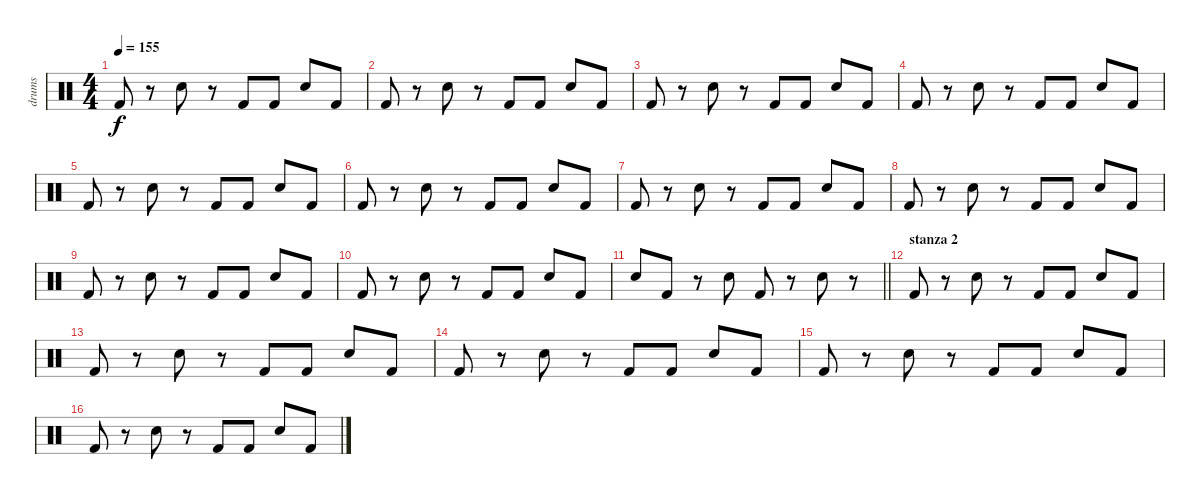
\track ("drums" "drums") {instrument percussion}
\staff {score}
\articulation defaults
\ts (4 4)
\tempo 155
\clef neutral
\ks c "Kick (hit) 2".8{dy f}
r.8 "Snare (hit) 2".8 r.8 "Kick (hit) 2".8 "Kick (hit) 2".8 "Snare (hit) 2".8 "Kick (hit) 2".8 |
"Kick (hit) 2".8 r.8 "Snare (hit) 2".8 r.8 "Kick (hit) 2".8 "Kick (hit) 2".8 "Snare (hit) 2".8 "Kick (hit) 2".8 |
"Kick (hit) 2".8 r.8 "Snare (hit) 2".8 r.8 "Kick (hit) 2".8 "Kick (hit) 2".8 "Snare (hit) 2".8 "Kick (hit) 2".8 |
"Kick (hit) 2".8 r.8 "Snare (hit) 2".8 r.8 "Kick (hit) 2".8 "Kick (hit) 2".8 "Snare (hit) 2".8 "Kick (hit) 2".8 |
"Kick (hit) 2".8 r.8 "Snare (hit) 2".8 r.8 "Kick (hit) 2".8 "Kick (hit) 2".8 "Snare (hit) 2".8 "Kick (hit) 2".8 |
"Kick (hit) 2".8 r.8 "Snare (hit) 2".8 r.8 "Kick (hit) 2".8 "Kick (hit) 2".8 "Snare (hit) 2".8 "Kick (hit) 2".8 |
"Kick (hit) 2".8 r.8 "Snare (hit) 2".8 r.8 "Kick (hit) 2".8 "Kick (hit) 2".8 "Snare (hit) 2".8 "Kick (hit) 2".8 |
"Kick (hit) 2".8 r.8 "Snare (hit) 2".8 r.8 "Kick (hit) 2".8 "Kick (hit) 2".8 "Snare (hit) 2".8 "Kick (hit) 2".8 |
"Kick (hit) 2".8 r.8 "Snare (hit) 2".8 r.8 "Kick (hit) 2".8 "Kick (hit) 2".8 "Snare (hit) 2".8 "Kick (hit) 2".8 |
"Kick (hit) 2".8 r.8 "Snare (hit) 2".8 r.8 "Kick (hit) 2".8 "Kick (hit) 2".8 "Snare (hit) 2".8 "Kick (hit) 2".8 |
\barLineRight lightlight "Snare (hit) 2".8 "Kick (hit) 2".8
r.8 "Snare (hit) 2".8 "Kick (hit) 2".8 r.8 "Snare (hit) 2".8 r.8 |
\section ("" "stanza 2")
"Kick (hit) 2".8 r.8 "Snare (hit) 2".8 r.8 "Kick (hit) 2".8 "Kick (hit) 2".8 "Snare (hit) 2".8 "Kick (hit) 2".8 |
"Kick (hit) 2".8 r.8 "Snare (hit) 2".8 r.8 "Kick (hit) 2".8 "Kick (hit) 2".8 "Snare (hit) 2".8 "Kick (hit) 2".8 |
"Kick (hit) 2".8 r.8 "Snare (hit) 2".8 r.8 "Kick (hit) 2".8 "Kick (hit) 2".8 "Snare (hit) 2".8 "Kick (hit) 2".8 |
"Kick (hit) 2".8 r.8 "Snare (hit) 2".8 r.8 "Kick (hit) 2".8 "Kick (hit) 2".8 "Snare (hit) 2".8 "Kick (hit) 2".8 |
"Kick (hit) 2".8 r.8 "Snare (hit) 2".8 r.8 "Kick (hit) 2".8 "Kick (hit) 2".8 "Snare (hit) 2".8 "Kick (hit) 2".8
